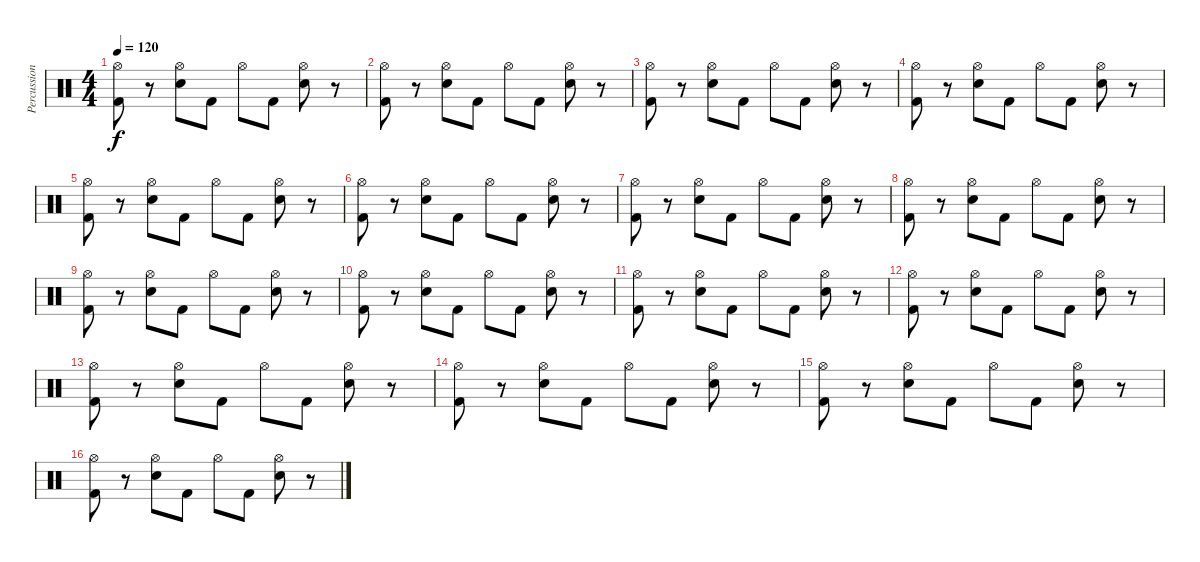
\track ("Percussion" "Percussion") {instrument percussion}
\staff {score}
\articulation defaults
\ts (4 4)
\tempo 120
\clef neutral
\ks c
("Hi-Hat (open)" "Kick (hit) 2").8{dy f} r.8 ("Hi-Hat (open)" "Snare (hit) 2").8 "Kick (hit) 2".8 "Hi-Hat (open)".8 "Kick (hit) 2".8 ("Hi-Hat (open)" "Snare (hit) 2").8 r.8 |
("Hi-Hat (open)" "Kick (hit) 2").8 r.8 ("Hi-Hat (open)" "Snare (hit) 2").8 "Kick (hit) 2".8 "Hi-Hat (open)".8 "Kick (hit) 2".8 ("Hi-Hat (open)" "Snare (hit) 2").8 r.8 |
("Hi-Hat (open)" "Kick (hit) 2").8 r.8 ("Hi-Hat (open)" "Snare (hit) 2").8 "Kick (hit) 2".8 "Hi-Hat (open)".8 "Kick (hit) 2".8 ("Hi-Hat (open)" "Snare (hit) 2").8 r.8 |
("Hi-Hat (open)" "Kick (hit) 2").8 r.8 ("Hi-Hat (open)" "Snare (hit) 2").8 "Kick (hit) 2".8 "Hi-Hat (open)".8 "Kick (hit) 2".8 ("Hi-Hat (open)" "Snare (hit) 2").8 r.8 |
("Hi-Hat (open)" "Kick (hit) 2").8 r.8 ("Hi-Hat (open)" "Snare (hit) 2").8 "Kick (hit) 2".8 "Hi-Hat (open)".8 "Kick (hit) 2".8 ("Hi-Hat (open)" "Snare (hit) 2").8 r.8 |
("Hi-Hat (open)" "Kick (hit) 2").8 r.8 ("Hi-Hat (open)" "Snare (hit) 2").8 "Kick (hit) 2".8 "Hi-Hat (open)".8 "Kick (hit) 2".8 ("Hi-Hat (open)" "Snare (hit) 2").8 r.8 |
("Hi-Hat (open)" "Kick (hit) 2").8 r.8 ("Hi-Hat (open)" "Snare (hit) 2").8 "Kick (hit) 2".8 "Hi-Hat (open)".8 "Kick (hit) 2".8 ("Hi-Hat (open)" "Snare (hit) 2").8 r.8 |
("Hi-Hat (open)" "Kick (hit) 2").8 r.8 ("Hi-Hat (open)" "Snare (hit) 2").8 "Kick (hit) 2".8 "Hi-Hat (open)".8 "Kick (hit) 2".8 ("Hi-Hat (open)" "Snare (hit) 2").8 r.8 |
("Hi-Hat (open)" "Kick (hit) 2").8 r.8 ("Hi-Hat (open)" "Snare (hit) 2").8 "Kick (hit) 2".8 "Hi-Hat (open)".8 "Kick (hit) 2".8 ("Hi-Hat (open)" "Snare (hit) 2").8 r.8 |
("Hi-Hat (open)" "Kick (hit) 2").8 r.8 ("Hi-Hat (open)" "Snare (hit) 2").8 "Kick (hit) 2".8 "Hi-Hat (open)".8 "Kick (hit) 2".8 ("Hi-Hat (open)" "Snare (hit) 2").8 r.8 |
("Hi-Hat (open)" "Kick (hit) 2").8 r.8 ("Hi-Hat (open)" "Snare (hit) 2").8 "Kick (hit) 2".8 "Hi-Hat (open)".8 "Kick (hit) 2".8 ("Hi-Hat (open)" "Snare (hit) 2").8 r.8 |
("Hi-Hat (open)" "Kick (hit) 2").8 r.8 ("Hi-Hat (open)" "Snare (hit) 2").8 "Kick (hit) 2".8 "Hi-Hat (open)".8 "Kick (hit) 2".8 ("Hi-Hat (open)" "Snare (hit) 2").8 r.8 |
("Hi-Hat (open)" "Kick (hit) 2").8 r.8 ("Hi-Hat (open)" "Snare (hit) 2").8 "Kick (hit) 2".8 "Hi-Hat (open)".8 "Kick (hit) 2".8 ("Hi-Hat (open)" "Snare (hit) 2").8 r.8 |
("Hi-Hat (open)" "Kick (hit) 2").8 r.8 ("Hi-Hat (open)" "Snare (hit) 2").8 "Kick (hit) 2".8 "Hi-Hat (open)".8 "Kick (hit) 2".8 ("Hi-Hat (open)" "Snare (hit) 2").8 r.8 |
("Hi-Hat (open)" "Kick (hit) 2").8 r.8 ("Hi-Hat (open)" "Snare (hit) 2").8 "Kick (hit) 2".8 "Hi-Hat (open)".8 "Kick (hit) 2".8 ("Hi-Hat (open)" "Snare (hit) 2").8 r.8 |
("Hi-Hat (open)" "Kick (hit) 2").8 r.8 ("Hi-Hat (open)" "Snare (hit) 2").8 "Kick (hit) 2".8 "Hi-Hat (open)".8 "Kick (hit) 2".8 ("Hi-Hat (open)" "Snare (hit) 2").8 r.8
